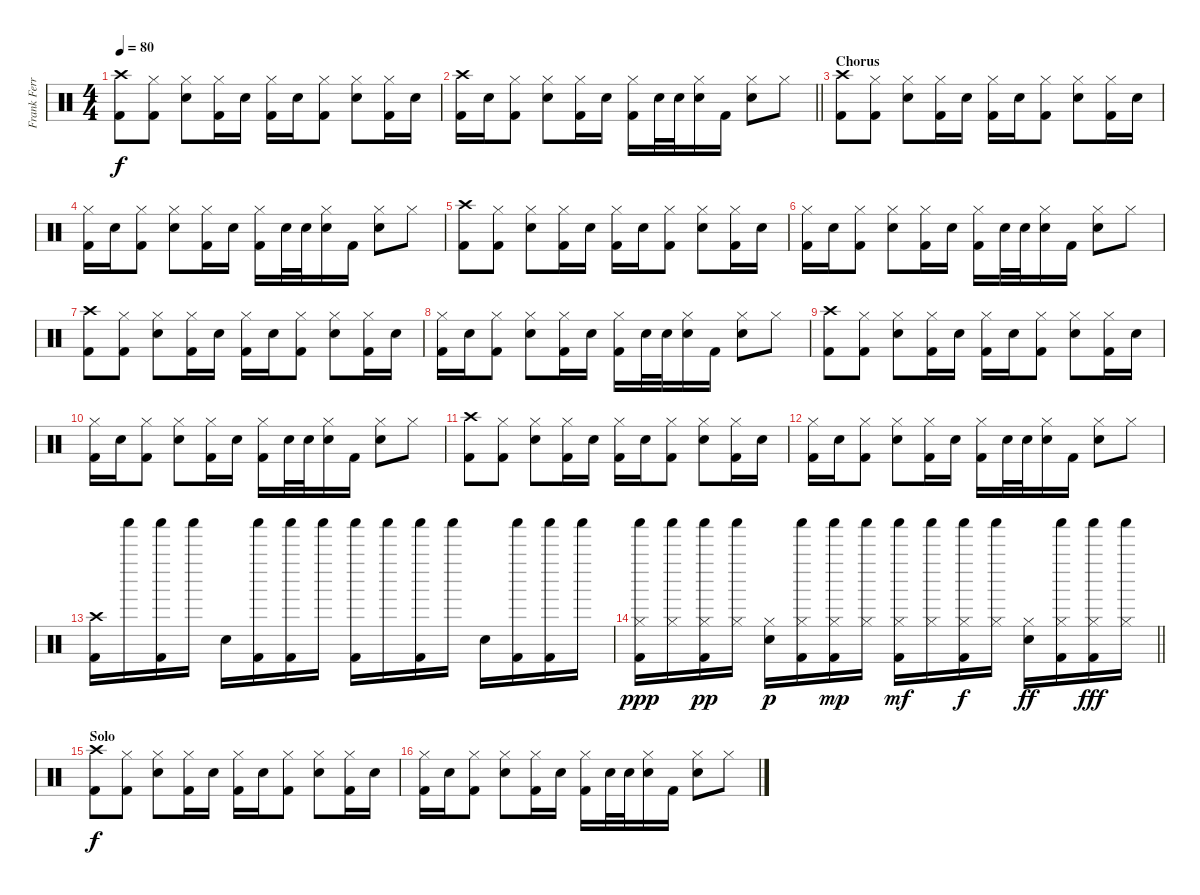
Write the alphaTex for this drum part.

\track ("Frank Ferrer" "Frank Ferr") {instrument percussion}
\staff {score}
\articulation defaults
\ts (4 4)
\tempo 80
\clef neutral
\ks c
("Crash high (hit)" "Kick (hit) 2").8{dy f} ("Hi-Hat (closed)" "Kick (hit) 2").8 ("Hi-Hat (closed)" "Snare (hit) 2").8 ("Hi-Hat (closed)" "Kick (hit) 2").16 "Snare (hit) 2".16 ("Hi-Hat (closed)" "Kick (hit) 2").16 "Snare (hit) 2".16 ("Hi-Hat (closed)" "Kick (hit) 2").8 ("Hi-Hat (closed)" "Snare (hit) 2").8 ("Hi-Hat (closed)" "Kick (hit) 2").16 "Snare (hit) 2".16 |
\barLineRight lightlight
("Crash high (hit)" "Kick (hit) 2").16 "Snare (hit) 2".16 ("Hi-Hat (closed)" "Kick (hit) 2").8 ("Hi-Hat (closed)" "Snare (hit) 2").8 ("Hi-Hat (closed)" "Kick (hit) 2").16 "Snare (hit) 2".16 ("Hi-Hat (closed)" "Kick (hit) 2").16 "Snare (hit) 2".32 "Snare (hit) 2".32 ("Hi-Hat (closed)" "Snare (hit) 2").16 "Kick (hit) 2".16 ("Hi-Hat (closed)" "Snare (hit) 2").8 "Hi-Hat (closed)".8 |
\section ("" "Chorus")
("Crash high (hit)" "Kick (hit) 2").8 ("Hi-Hat (closed)" "Kick (hit) 2").8 ("Hi-Hat (closed)" "Snare (hit) 2").8 ("Hi-Hat (closed)" "Kick (hit) 2").16 "Snare (hit) 2".16 ("Hi-Hat (closed)" "Kick (hit) 2").16 "Snare (hit) 2".16 ("Hi-Hat (closed)" "Kick (hit) 2").8 ("Hi-Hat (closed)" "Snare (hit) 2").8 ("Hi-Hat (closed)" "Kick (hit) 2").16 "Snare (hit) 2".16 |
("Hi-Hat (closed)" "Kick (hit) 2").16 "Snare (hit) 2".16 ("Hi-Hat (closed)" "Kick (hit) 2").8 ("Hi-Hat (closed)" "Snare (hit) 2").8 ("Hi-Hat (closed)" "Kick (hit) 2").16 "Snare (hit) 2".16 ("Hi-Hat (closed)" "Kick (hit) 2").16 "Snare (hit) 2".32 "Snare (hit) 2".32 ("Hi-Hat (closed)" "Snare (hit) 2").16 "Kick (hit) 2".16 ("Hi-Hat (closed)" "Snare (hit) 2").8 "Hi-Hat (closed)".8 |
("Crash high (hit)" "Kick (hit) 2").8 ("Hi-Hat (closed)" "Kick (hit) 2").8 ("Hi-Hat (closed)" "Snare (hit) 2").8 ("Hi-Hat (closed)" "Kick (hit) 2").16 "Snare (hit) 2".16 ("Hi-Hat (closed)" "Kick (hit) 2").16 "Snare (hit) 2".16 ("Hi-Hat (closed)" "Kick (hit) 2").8 ("Hi-Hat (closed)" "Snare (hit) 2").8 ("Hi-Hat (closed)" "Kick (hit) 2").16 "Snare (hit) 2".16 |
("Hi-Hat (closed)" "Kick (hit) 2").16 "Snare (hit) 2".16 ("Hi-Hat (closed)" "Kick (hit) 2").8 ("Hi-Hat (closed)" "Snare (hit) 2").8 ("Hi-Hat (closed)" "Kick (hit) 2").16 "Snare (hit) 2".16 ("Hi-Hat (closed)" "Kick (hit) 2").16 "Snare (hit) 2".32 "Snare (hit) 2".32 ("Hi-Hat (closed)" "Snare (hit) 2").16 "Kick (hit) 2".16 ("Hi-Hat (closed)" "Snare (hit) 2").8 "Hi-Hat (closed)".8 |
("Crash high (hit)" "Kick (hit) 2").8 ("Hi-Hat (closed)" "Kick (hit) 2").8 ("Hi-Hat (closed)" "Snare (hit) 2").8 ("Hi-Hat (closed)" "Kick (hit) 2").16 "Snare (hit) 2".16 ("Hi-Hat (closed)" "Kick (hit) 2").16 "Snare (hit) 2".16 ("Hi-Hat (closed)" "Kick (hit) 2").8 ("Hi-Hat (closed)" "Snare (hit) 2").8 ("Hi-Hat (closed)" "Kick (hit) 2").16 "Snare (hit) 2".16 |
("Hi-Hat (closed)" "Kick (hit) 2").16 "Snare (hit) 2".16 ("Hi-Hat (closed)" "Kick (hit) 2").8 ("Hi-Hat (closed)" "Snare (hit) 2").8 ("Hi-Hat (closed)" "Kick (hit) 2").16 "Snare (hit) 2".16 ("Hi-Hat (closed)" "Kick (hit) 2").16 "Snare (hit) 2".32 "Snare (hit) 2".32 ("Hi-Hat (closed)" "Snare (hit) 2").16 "Kick (hit) 2".16 ("Hi-Hat (closed)" "Snare (hit) 2").8 "Hi-Hat (closed)".8 |
("Crash high (hit)" "Kick (hit) 2").8 ("Hi-Hat (closed)" "Kick (hit) 2").8 ("Hi-Hat (closed)" "Snare (hit) 2").8 ("Hi-Hat (closed)" "Kick (hit) 2").16 "Snare (hit) 2".16 ("Hi-Hat (closed)" "Kick (hit) 2").16 "Snare (hit) 2".16 ("Hi-Hat (closed)" "Kick (hit) 2").8 ("Hi-Hat (closed)" "Snare (hit) 2").8 ("Hi-Hat (closed)" "Kick (hit) 2").16 "Snare (hit) 2".16 |
("Hi-Hat (closed)" "Kick (hit) 2").16 "Snare (hit) 2".16 ("Hi-Hat (closed)" "Kick (hit) 2").8 ("Hi-Hat (closed)" "Snare (hit) 2").8 ("Hi-Hat (closed)" "Kick (hit) 2").16 "Snare (hit) 2".16 ("Hi-Hat (closed)" "Kick (hit) 2").16 "Snare (hit) 2".32 "Snare (hit) 2".32 ("Hi-Hat (closed)" "Snare (hit) 2").16 "Kick (hit) 2".16 ("Hi-Hat (closed)" "Snare (hit) 2").8 "Hi-Hat (closed)".8 |
("Crash high (hit)" "Kick (hit) 2").8 ("Hi-Hat (closed)" "Kick (hit) 2").8 ("Hi-Hat (closed)" "Snare (hit) 2").8 ("Hi-Hat (closed)" "Kick (hit) 2").16 "Snare (hit) 2".16 ("Hi-Hat (closed)" "Kick (hit) 2").16 "Snare (hit) 2".16 ("Hi-Hat (closed)" "Kick (hit) 2").8 ("Hi-Hat (closed)" "Snare (hit) 2").8 ("Hi-Hat (closed)" "Kick (hit) 2").16 "Snare (hit) 2".16 |
("Hi-Hat (closed)" "Kick (hit) 2").16 "Snare (hit) 2".16 ("Hi-Hat (closed)" "Kick (hit) 2").8 ("Hi-Hat (closed)" "Snare (hit) 2").8 ("Hi-Hat (closed)" "Kick (hit) 2").16 "Snare (hit) 2".16 ("Hi-Hat (closed)" "Kick (hit) 2").16 "Snare (hit) 2".32 "Snare (hit) 2".32 ("Hi-Hat (closed)" "Snare (hit) 2").16 "Kick (hit) 2".16 ("Hi-Hat (closed)" "Snare (hit) 2").8 "Hi-Hat (closed)".8 |
("Crash high (hit)" "Kick (hit) 2").16 "Shaker (hit)".16 ("Shaker (hit)" "Kick (hit) 2").16 "Shaker (hit)".16 "Snare (hit) 2".16 ("Shaker (hit)" "Kick (hit) 2").16 ("Shaker (hit)" "Kick (hit) 2").16 "Shaker (hit)".16 ("Shaker (hit)" "Kick (hit) 2").16 "Shaker (hit)".16 ("Shaker (hit)" "Kick (hit) 2").16 "Shaker (hit)".16 "Snare (hit) 2".16 ("Shaker (hit)" "Kick (hit) 2").16 ("Shaker (hit)" "Kick (hit) 2").16 "Shaker (hit)".16 |
\barLineRight lightlight
("Shaker (hit)" "Kick (hit) 2" "Hi-Hat (closed)").16{dy ppp} ("Shaker (hit)" "Hi-Hat (closed)").16 ("Shaker (hit)" "Kick (hit) 2" "Hi-Hat (closed)").16{dy pp} ("Shaker (hit)" "Hi-Hat (closed)").16 ("Snare (hit) 2" "Hi-Hat (closed)").16{dy p} ("Shaker (hit)" "Kick (hit) 2" "Hi-Hat (closed)").16 ("Shaker (hit)" "Kick (hit) 2" "Hi-Hat (closed)").16{dy mp} ("Shaker (hit)" "Hi-Hat (closed)").16 ("Shaker (hit)" "Kick (hit) 2" "Hi-Hat (closed)").16{dy mf} ("Shaker (hit)" "Hi-Hat (closed)").16 ("Shaker (hit)" "Kick (hit) 2" "Hi-Hat (closed)").16{dy f} ("Shaker (hit)" "Hi-Hat (closed)").16 ("Snare (hit) 2" "Hi-Hat (closed)").16{dy ff} ("Shaker (hit)" "Kick (hit) 2" "Hi-Hat (closed)").16 ("Shaker (hit)" "Kick (hit) 2" "Hi-Hat (closed)").16{dy fff} ("Shaker (hit)" "Hi-Hat (closed)").16 |
\section ("" "Solo")
("Crash high (hit)" "Kick (hit) 2").8{dy f} ("Hi-Hat (closed)" "Kick (hit) 2").8 ("Hi-Hat (closed)" "Snare (hit) 2").8 ("Hi-Hat (closed)" "Kick (hit) 2").16 "Snare (hit) 2".16 ("Hi-Hat (closed)" "Kick (hit) 2").16 "Snare (hit) 2".16 ("Hi-Hat (closed)" "Kick (hit) 2").8 ("Hi-Hat (closed)" "Snare (hit) 2").8 ("Hi-Hat (closed)" "Kick (hit) 2").16 "Snare (hit) 2".16 |
("Hi-Hat (closed)" "Kick (hit) 2").16 "Snare (hit) 2".16 ("Hi-Hat (closed)" "Kick (hit) 2").8 ("Hi-Hat (closed)" "Snare (hit) 2").8 ("Hi-Hat (closed)" "Kick (hit) 2").16 "Snare (hit) 2".16 ("Hi-Hat (closed)" "Kick (hit) 2").16 "Snare (hit) 2".32 "Snare (hit) 2".32 ("Hi-Hat (closed)" "Snare (hit) 2").16 "Kick (hit) 2".16 ("Hi-Hat (closed)" "Snare (hit) 2").8 "Hi-Hat (closed)".8
